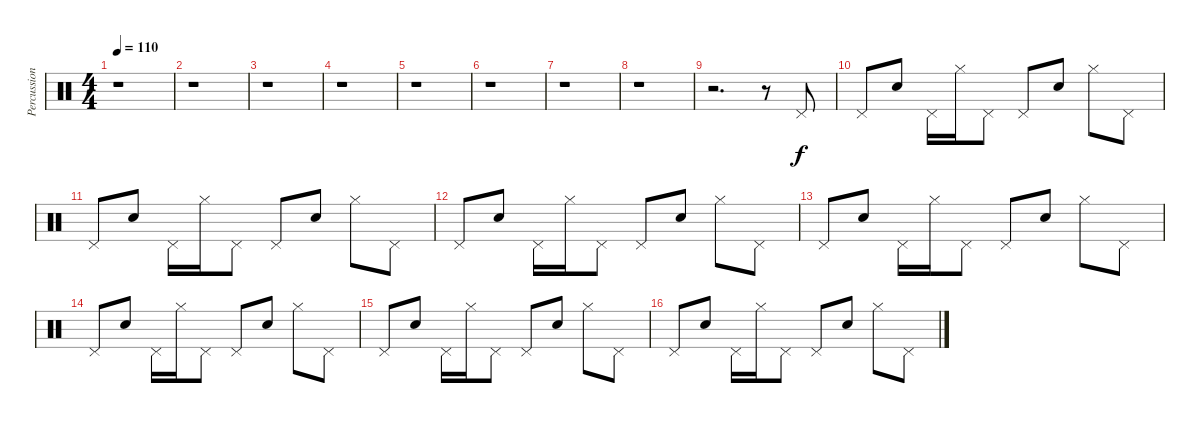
\track ("Percussions" "Percussion") {instrument percussion}
\staff {score}
\articulation defaults
\ts (4 4)
\tempo 110
\clef neutral
\ks c
r.1{dy f} |
r.1 |
r.1 |
r.1 |
r.1 |
r.1 |
r.1 |
r.1 |
r.2{d} r.8 "Pedal Hi-Hat (hit)".8 |
"Pedal Hi-Hat (hit)".8 "Snare (hit) 2".8 "Pedal Hi-Hat (hit)".16 "Hi-Hat (closed)".16 "Pedal Hi-Hat (hit)".8 "Pedal Hi-Hat (hit)".8 "Snare (hit) 2".8 "Hi-Hat (closed)".8 "Pedal Hi-Hat (hit)".8 |
"Pedal Hi-Hat (hit)".8 "Snare (hit) 2".8 "Pedal Hi-Hat (hit)".16 "Hi-Hat (closed)".16 "Pedal Hi-Hat (hit)".8 "Pedal Hi-Hat (hit)".8 "Snare (hit) 2".8 "Hi-Hat (closed)".8 "Pedal Hi-Hat (hit)".8 |
"Pedal Hi-Hat (hit)".8 "Snare (hit) 2".8 "Pedal Hi-Hat (hit)".16 "Hi-Hat (closed)".16 "Pedal Hi-Hat (hit)".8 "Pedal Hi-Hat (hit)".8 "Snare (hit) 2".8 "Hi-Hat (closed)".8 "Pedal Hi-Hat (hit)".8 |
"Pedal Hi-Hat (hit)".8 "Snare (hit) 2".8 "Pedal Hi-Hat (hit)".16 "Hi-Hat (closed)".16 "Pedal Hi-Hat (hit)".8 "Pedal Hi-Hat (hit)".8 "Snare (hit) 2".8 "Hi-Hat (closed)".8 "Pedal Hi-Hat (hit)".8 |
"Pedal Hi-Hat (hit)".8 "Snare (hit) 2".8 "Pedal Hi-Hat (hit)".16 "Hi-Hat (closed)".16 "Pedal Hi-Hat (hit)".8 "Pedal Hi-Hat (hit)".8 "Snare (hit) 2".8 "Hi-Hat (closed)".8 "Pedal Hi-Hat (hit)".8 |
"Pedal Hi-Hat (hit)".8 "Snare (hit) 2".8 "Pedal Hi-Hat (hit)".16 "Hi-Hat (closed)".16 "Pedal Hi-Hat (hit)".8 "Pedal Hi-Hat (hit)".8 "Snare (hit) 2".8 "Hi-Hat (closed)".8 "Pedal Hi-Hat (hit)".8 |
"Pedal Hi-Hat (hit)".8 "Snare (hit) 2".8 "Pedal Hi-Hat (hit)".16 "Hi-Hat (closed)".16 "Pedal Hi-Hat (hit)".8 "Pedal Hi-Hat (hit)".8 "Snare (hit) 2".8 "Hi-Hat (closed)".8 "Pedal Hi-Hat (hit)".8
